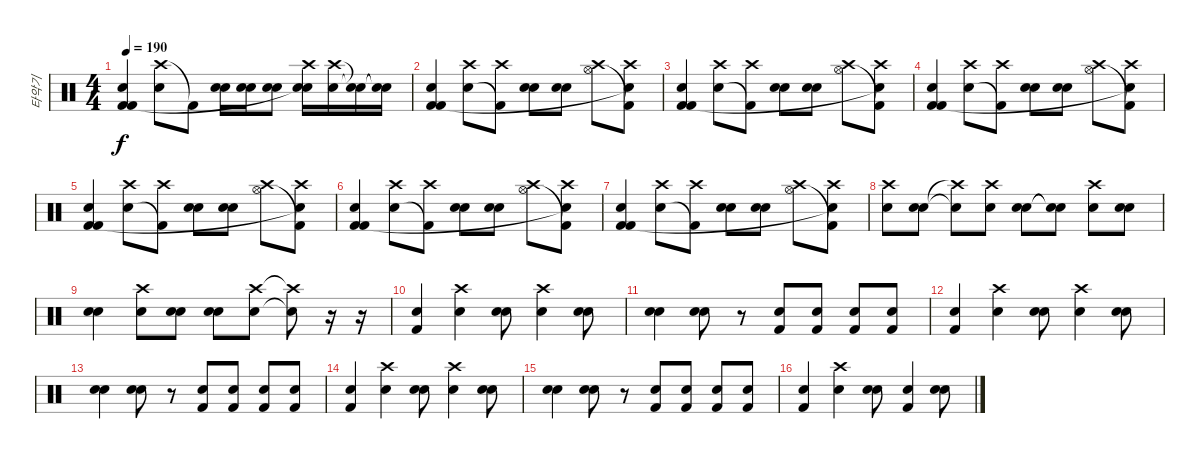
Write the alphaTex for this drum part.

\track ("타악기" "타악기") {instrument percussion}
\staff {score}
\articulation defaults
\ts (4 4)
\tempo 190
\clef neutral
\ks c
("Kick (hit) 2" "Snare (hit) 2" "Kick (hit) 2").4{dy f} ("Crash high (hit)" "Snare (hit) 2").8 "Kick (hit) 2"{t}.8 ("Electric Snare (hit)" "Electric Snare (hit)").16 ("Electric Snare (hit)" "Snare (hit) 2").16 ("Electric Snare (hit)" "Snare (hit) 2").8 ("Crash high (hit)" "Electric Snare (hit)" "Snare (hit)"{t}).16 ("Crash high (hit)" "Electric Snare (hit)").16 ("Snare (hit)"{t} "Snare (hit)"{t}).16 ("Snare (hit)"{t} "Snare (hit)"{t}).16 |
("Kick (hit) 2" "Snare (hit) 2" "Kick (hit) 2").4 ("Crash high (hit)" "Snare (hit) 2").8 ("Crash high (hit)" "Kick (hit) 2"{t}).8 ("Snare (hit) 2" "Electric Snare (hit)").8 ("Snare (hit) 2" "Snare (hit) 2").8 ("Crash high (hit)" "Hi-Hat (open)").8 ("Crash high (hit)" "Kick (hit) 2"{t} "Snare (hit)"{t}).8 |
("Kick (hit) 2" "Snare (hit) 2" "Kick (hit) 2").4 ("Crash high (hit)" "Snare (hit) 2").8 ("Crash high (hit)" "Kick (hit) 2"{t}).8 ("Snare (hit) 2" "Electric Snare (hit)").8 ("Snare (hit) 2" "Snare (hit) 2").8 ("Crash high (hit)" "Hi-Hat (open)").8 ("Crash high (hit)" "Kick (hit) 2"{t} "Snare (hit)"{t}).8 |
("Kick (hit) 2" "Snare (hit) 2" "Kick (hit) 2").4 ("Crash high (hit)" "Snare (hit) 2").8 ("Crash high (hit)" "Kick (hit) 2"{t}).8 ("Snare (hit) 2" "Electric Snare (hit)").8 ("Snare (hit) 2" "Snare (hit) 2").8 ("Crash high (hit)" "Hi-Hat (open)").8 ("Crash high (hit)" "Kick (hit) 2"{t} "Snare (hit)"{t}).8 |
("Kick (hit) 2" "Snare (hit) 2" "Kick (hit) 2").4 ("Crash high (hit)" "Snare (hit) 2").8 ("Crash high (hit)" "Kick (hit) 2"{t}).8 ("Snare (hit) 2" "Electric Snare (hit)").8 ("Snare (hit) 2" "Snare (hit) 2").8 ("Crash high (hit)" "Hi-Hat (open)").8 ("Crash high (hit)" "Kick (hit) 2"{t} "Snare (hit)"{t}).8 |
("Kick (hit) 2" "Snare (hit) 2" "Kick (hit) 2").4 ("Crash high (hit)" "Snare (hit) 2").8 ("Crash high (hit)" "Kick (hit) 2"{t}).8 ("Snare (hit) 2" "Electric Snare (hit)").8 ("Snare (hit) 2" "Snare (hit) 2").8 ("Crash high (hit)" "Hi-Hat (open)").8 ("Crash high (hit)" "Kick (hit) 2"{t} "Snare (hit)"{t}).8 |
("Kick (hit) 2" "Snare (hit) 2" "Kick (hit) 2").4 ("Crash high (hit)" "Snare (hit) 2").8 ("Crash high (hit)" "Kick (hit) 2"{t}).8 ("Snare (hit) 2" "Electric Snare (hit)").8 ("Snare (hit) 2" "Snare (hit) 2").8 ("Crash high (hit)" "Hi-Hat (open)").8 ("Crash high (hit)" "Kick (hit) 2"{t} "Snare (hit)"{t}).8 |
("Snare (hit) 2" "Crash high (hit)").8 ("Snare (hit) 2" "Electric Snare (hit)").8 ("Snare (hit) 2"{t} "Crash high (hit)"{t}).8 ("Snare (hit) 2" "Crash high (hit)").8 ("Snare (hit) 2" "Electric Snare (hit)").8 ("Snare (hit) 2"{t} "Electric Snare (hit)"{t}).8 ("Snare (hit) 2" "Crash high (hit)").8 ("Snare (hit) 2" "Electric Snare (hit)").8 |
("Electric Snare (hit)" "Snare (hit) 2").4 ("Crash high (hit)" "Snare (hit) 2").8 ("Electric Snare (hit)" "Electric Snare (hit)").8 ("Electric Snare (hit)" "Electric Snare (hit)").8 ("Electric Snare (hit)" "Crash high (hit)").8 ("Electric Snare (hit)"{t} "Crash high (hit)"{t}).8 r.16 r.16 |
("Snare (hit) 2" "Kick (hit) 2").4 ("Electric Snare (hit)" "Crash high (hit)").4 ("Electric Snare (hit)" "Snare (hit) 2").8 ("Electric Snare (hit)" "Crash high (hit)").4 ("Electric Snare (hit)" "Snare (hit) 2").8 |
("Electric Snare (hit)" "Snare (hit) 2").4 ("Electric Snare (hit)" "Snare (hit) 2").8 r.8 ("Electric Snare (hit)" "Kick (hit) 2").8 ("Electric Snare (hit)" "Kick (hit) 2").8 ("Electric Snare (hit)" "Kick (hit) 2").8 ("Electric Snare (hit)" "Kick (hit) 2").8 |
("Snare (hit) 2" "Kick (hit) 2").4 ("Electric Snare (hit)" "Crash high (hit)").4 ("Electric Snare (hit)" "Snare (hit) 2").8 ("Electric Snare (hit)" "Crash high (hit)").4 ("Electric Snare (hit)" "Snare (hit) 2").8 |
("Electric Snare (hit)" "Snare (hit) 2").4 ("Electric Snare (hit)" "Snare (hit) 2").8 r.8 ("Electric Snare (hit)" "Kick (hit) 2").8 ("Electric Snare (hit)" "Kick (hit) 2").8 ("Electric Snare (hit)" "Kick (hit) 2").8 ("Electric Snare (hit)" "Kick (hit) 2").8 |
("Snare (hit) 2" "Kick (hit) 2").4 ("Electric Snare (hit)" "Crash high (hit)").4 ("Electric Snare (hit)" "Snare (hit) 2").8 ("Electric Snare (hit)" "Crash high (hit)").4 ("Electric Snare (hit)" "Snare (hit) 2").8 |
("Electric Snare (hit)" "Snare (hit) 2").4 ("Electric Snare (hit)" "Snare (hit) 2").8 r.8 ("Electric Snare (hit)" "Kick (hit) 2").8 ("Electric Snare (hit)" "Kick (hit) 2").8 ("Electric Snare (hit)" "Kick (hit) 2").8 ("Electric Snare (hit)" "Kick (hit) 2").8 |
("Snare (hit) 2" "Kick (hit) 2").4 ("Electric Snare (hit)" "Crash high (hit)").4 ("Electric Snare (hit)" "Snare (hit) 2").8 ("Electric Snare (hit)" "Kick (hit) 2").4 ("Electric Snare (hit)" "Snare (hit) 2").8
